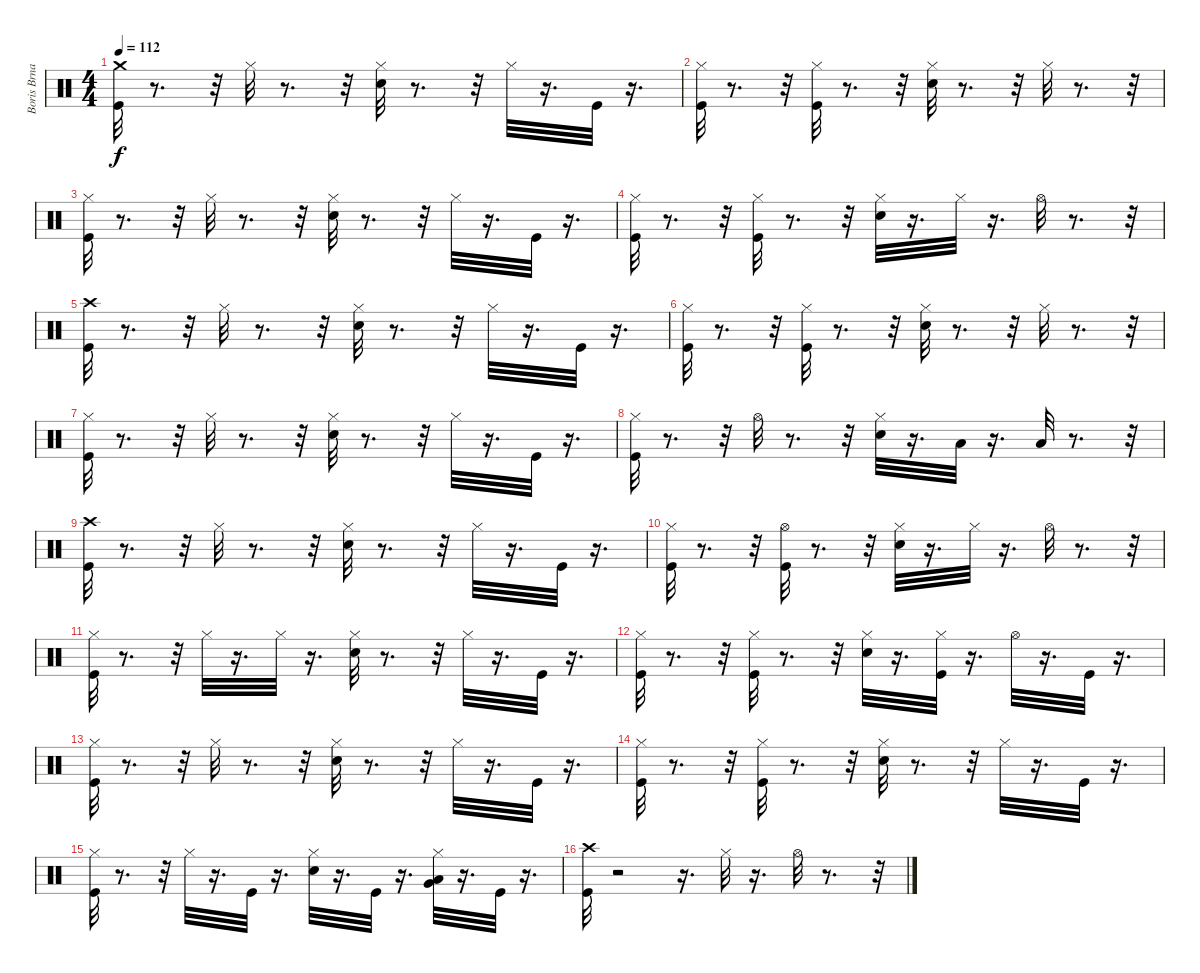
\track ("Boris Brna (Drums)" "Boris Brna") {instrument percussion}
\staff {score}
\articulation defaults
\ts (4 4)
\tempo 112
\clef neutral
\ks c
("Kick (hit)" "Crash medium (hit)").32{dy f} r.8{d} r.32 "Hi-Hat (closed)".32 r.8{d} r.32 ("Hi-Hat (closed)" "Snare (hit) 2").32 r.8{d} r.32 "Hi-Hat (closed)".32 r.16{d} "Kick (hit)".32 r.16{d} |
("Kick (hit)" "Hi-Hat (closed)").32 r.8{d} r.32 ("Kick (hit)" "Hi-Hat (closed)").32 r.8{d} r.32 ("Snare (hit) 2" "Hi-Hat (closed)").32 r.8{d} r.32 "Hi-Hat (closed)".32 r.8{d} r.32 |
("Kick (hit)" "Hi-Hat (closed)").32 r.8{d} r.32 "Hi-Hat (closed)".32 r.8{d} r.32 ("Hi-Hat (closed)" "Snare (hit) 2").32 r.8{d} r.32 "Hi-Hat (closed)".32 r.16{d} "Kick (hit)".32 r.16{d} |
("Kick (hit)" "Hi-Hat (closed)").32 r.8{d} r.32 ("Kick (hit)" "Hi-Hat (closed)").32 r.8{d} r.32 ("Snare (hit) 2" "Hi-Hat (closed)").32 r.16{d} "Hi-Hat (closed)".32 r.16{d} "Hi-Hat (open)".32 r.8{d} r.32 |
("Kick (hit)" "Crash high (hit)").32 r.8{d} r.32 "Hi-Hat (closed)".32 r.8{d} r.32 ("Hi-Hat (closed)" "Snare (hit) 2").32 r.8{d} r.32 "Hi-Hat (closed)".32 r.16{d} "Kick (hit)".32 r.16{d} |
("Kick (hit)" "Hi-Hat (closed)").32 r.8{d} r.32 ("Kick (hit)" "Hi-Hat (closed)").32 r.8{d} r.32 ("Snare (hit) 2" "Hi-Hat (closed)").32 r.8{d} r.32 "Hi-Hat (closed)".32 r.8{d} r.32 |
("Kick (hit)" "Hi-Hat (closed)").32 r.8{d} r.32 "Hi-Hat (closed)".32 r.8{d} r.32 ("Hi-Hat (closed)" "Snare (hit) 2").32 r.8{d} r.32 "Hi-Hat (closed)".32 r.16{d} "Kick (hit)".32 r.16{d} |
("Kick (hit)" "Hi-Hat (closed)").32 r.8{d} r.32 "Hi-Hat (open)".32 r.8{d} r.32 ("Snare (hit) 2" "Hi-Hat (closed)").32 r.16{d} "Low Tom (hit)".32 r.16{d} "Low Floor Tom (hit)".32 r.8{d} r.32 |
("Kick (hit)" "Crash high (hit)").32 r.8{d} r.32 "Hi-Hat (closed)".32 r.8{d} r.32 ("Hi-Hat (closed)" "Snare (hit) 2").32 r.8{d} r.32 "Hi-Hat (closed)".32 r.16{d} "Kick (hit)".32 r.16{d} |
("Kick (hit)" "Hi-Hat (closed)").32 r.8{d} r.32 ("Kick (hit)" "Hi-Hat (open)").32 r.8{d} r.32 ("Snare (hit) 2" "Hi-Hat (closed)").32 r.16{d} "Hi-Hat (closed)".32 r.16{d} "Hi-Hat (open)".32 r.8{d} r.32 |
("Kick (hit)" "Hi-Hat (closed)").32 r.8{d} r.32 "Hi-Hat (closed)".32 r.16{d} "Hi-Hat (closed)".32 r.16{d} ("Hi-Hat (closed)" "Snare (hit) 2").32 r.8{d} r.32 "Hi-Hat (closed)".32 r.16{d} "Kick (hit)".32 r.16{d} |
("Kick (hit)" "Hi-Hat (closed)").32 r.8{d} r.32 ("Kick (hit)" "Hi-Hat (closed)").32 r.8{d} r.32 ("Snare (hit) 2" "Hi-Hat (closed)").32 r.16{d} ("Hi-Hat (closed)" "Kick (hit)").32 r.16{d} "Hi-Hat (open)".32 r.16{d} "Kick (hit)".32 r.16{d} |
("Kick (hit)" "Hi-Hat (closed)").32 r.8{d} r.32 "Hi-Hat (closed)".32 r.8{d} r.32 ("Hi-Hat (closed)" "Snare (hit) 2").32 r.8{d} r.32 "Hi-Hat (closed)".32 r.16{d} "Kick (hit)".32 r.16{d} |
("Kick (hit)" "Hi-Hat (closed)").32 r.8{d} r.32 ("Kick (hit)" "Hi-Hat (closed)").32 r.8{d} r.32 ("Snare (hit) 2" "Hi-Hat (closed)").32 r.8{d} r.32 "Hi-Hat (closed)".32 r.16{d} "Kick (hit)".32 r.16{d} |
("Kick (hit)" "Hi-Hat (closed)").32 r.8{d} r.32 "Hi-Hat (closed)".32 r.16{d} "Kick (hit)".32 r.16{d} ("Hi-Hat (closed)" "Snare (hit) 2").32 r.16{d} "Kick (hit)".32 r.16{d} ("Hi-Hat (closed)" "Low Tom (hit)" "Very Low Tom (hit)").32 r.16{d} "Kick (hit)".32 r.16{d} |
("Kick (hit)" "Crash high (hit)").32 r.2 r.16{d} "Hi-Hat (closed)".32 r.16{d} "Hi-Hat (open)".32 r.8{d} r.32
